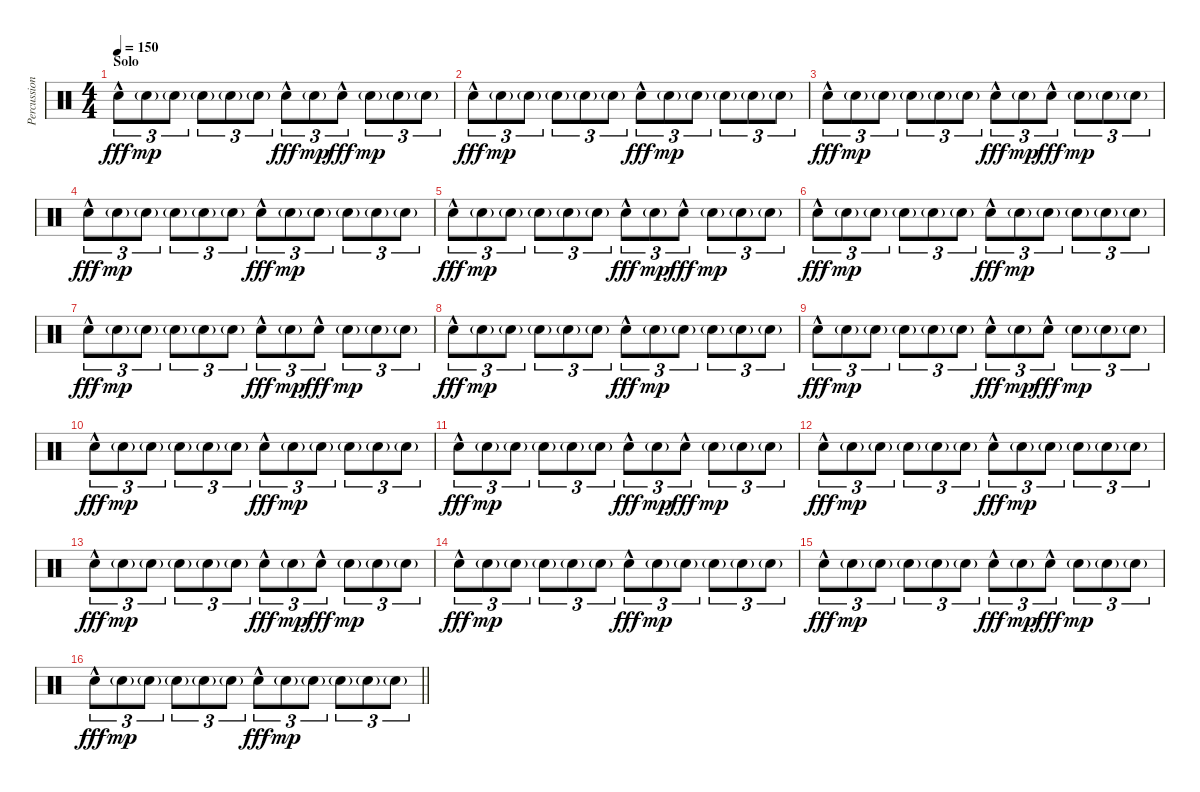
\track ("Percussion" "Percussion") {instrument percussion}
\staff {score}
\articulation defaults
\ts (4 4)
\section ("" "Solo")
\tempo 150
\clef neutral
\ks c "Electric Snare (hit)"{hac}.8{tu (3 2) dy fff} "Electric Snare (hit)"{g}.8{tu (3 2) dy mp} "Electric Snare (hit)"{g}.8{tu (3 2)} "Electric Snare (hit)"{g}.8{tu (3 2)} "Electric Snare (hit)"{g}.8{tu (3 2)} "Electric Snare (hit)"{g}.8{tu (3 2)} "Electric Snare (hit)"{hac}.8{tu (3 2) dy fff} "Electric Snare (hit)"{g}.8{tu (3 2) dy mp} "Electric Snare (hit)"{hac}.8{tu (3 2) dy fff} "Electric Snare (hit)"{g}.8{tu (3 2) dy mp} "Electric Snare (hit)"{g}.8{tu (3 2)} "Electric Snare (hit)"{g}.8{tu (3 2)}
|
"Electric Snare (hit)"{hac}.8{tu (3 2) dy fff} "Electric Snare (hit)"{g}.8{tu (3 2) dy mp} "Electric Snare (hit)"{g}.8{tu (3 2)} "Electric Snare (hit)"{g}.8{tu (3 2)} "Electric Snare (hit)"{g}.8{tu (3 2)} "Electric Snare (hit)"{g}.8{tu (3 2)} "Electric Snare (hit)"{hac}.8{tu (3 2) dy fff} "Electric Snare (hit)"{g}.8{tu (3 2) dy mp} "Electric Snare (hit)"{g}.8{tu (3 2)} "Electric Snare (hit)"{g}.8{tu (3 2)} "Electric Snare (hit)"{g}.8{tu (3 2)} "Electric Snare (hit)"{g}.8{tu (3 2)} |
"Electric Snare (hit)"{hac}.8{tu (3 2) dy fff} "Electric Snare (hit)"{g}.8{tu (3 2) dy mp} "Electric Snare (hit)"{g}.8{tu (3 2)} "Electric Snare (hit)"{g}.8{tu (3 2)} "Electric Snare (hit)"{g}.8{tu (3 2)} "Electric Snare (hit)"{g}.8{tu (3 2)} "Electric Snare (hit)"{hac}.8{tu (3 2) dy fff} "Electric Snare (hit)"{g}.8{tu (3 2) dy mp} "Electric Snare (hit)"{hac}.8{tu (3 2) dy fff} "Electric Snare (hit)"{g}.8{tu (3 2) dy mp} "Electric Snare (hit)"{g}.8{tu (3 2)} "Electric Snare (hit)"{g}.8{tu (3 2)} |
"Electric Snare (hit)"{hac}.8{tu (3 2) dy fff} "Electric Snare (hit)"{g}.8{tu (3 2) dy mp} "Electric Snare (hit)"{g}.8{tu (3 2)} "Electric Snare (hit)"{g}.8{tu (3 2)} "Electric Snare (hit)"{g}.8{tu (3 2)} "Electric Snare (hit)"{g}.8{tu (3 2)} "Electric Snare (hit)"{hac}.8{tu (3 2) dy fff} "Electric Snare (hit)"{g}.8{tu (3 2) dy mp} "Electric Snare (hit)"{g}.8{tu (3 2)} "Electric Snare (hit)"{g}.8{tu (3 2)} "Electric Snare (hit)"{g}.8{tu (3 2)} "Electric Snare (hit)"{g}.8{tu (3 2)} |
"Electric Snare (hit)"{hac}.8{tu (3 2) dy fff} "Electric Snare (hit)"{g}.8{tu (3 2) dy mp} "Electric Snare (hit)"{g}.8{tu (3 2)} "Electric Snare (hit)"{g}.8{tu (3 2)} "Electric Snare (hit)"{g}.8{tu (3 2)} "Electric Snare (hit)"{g}.8{tu (3 2)} "Electric Snare (hit)"{hac}.8{tu (3 2) dy fff} "Electric Snare (hit)"{g}.8{tu (3 2) dy mp} "Electric Snare (hit)"{hac}.8{tu (3 2) dy fff} "Electric Snare (hit)"{g}.8{tu (3 2) dy mp} "Electric Snare (hit)"{g}.8{tu (3 2)} "Electric Snare (hit)"{g}.8{tu (3 2)} |
"Electric Snare (hit)"{hac}.8{tu (3 2) dy fff} "Electric Snare (hit)"{g}.8{tu (3 2) dy mp} "Electric Snare (hit)"{g}.8{tu (3 2)} "Electric Snare (hit)"{g}.8{tu (3 2)} "Electric Snare (hit)"{g}.8{tu (3 2)} "Electric Snare (hit)"{g}.8{tu (3 2)} "Electric Snare (hit)"{hac}.8{tu (3 2) dy fff} "Electric Snare (hit)"{g}.8{tu (3 2) dy mp} "Electric Snare (hit)"{g}.8{tu (3 2)} "Electric Snare (hit)"{g}.8{tu (3 2)} "Electric Snare (hit)"{g}.8{tu (3 2)} "Electric Snare (hit)"{g}.8{tu (3 2)} |
"Electric Snare (hit)"{hac}.8{tu (3 2) dy fff} "Electric Snare (hit)"{g}.8{tu (3 2) dy mp} "Electric Snare (hit)"{g}.8{tu (3 2)} "Electric Snare (hit)"{g}.8{tu (3 2)} "Electric Snare (hit)"{g}.8{tu (3 2)} "Electric Snare (hit)"{g}.8{tu (3 2)} "Electric Snare (hit)"{hac}.8{tu (3 2) dy fff} "Electric Snare (hit)"{g}.8{tu (3 2) dy mp} "Electric Snare (hit)"{hac}.8{tu (3 2) dy fff} "Electric Snare (hit)"{g}.8{tu (3 2) dy mp} "Electric Snare (hit)"{g}.8{tu (3 2)} "Electric Snare (hit)"{g}.8{tu (3 2)} |
"Electric Snare (hit)"{hac}.8{tu (3 2) dy fff} "Electric Snare (hit)"{g}.8{tu (3 2) dy mp} "Electric Snare (hit)"{g}.8{tu (3 2)} "Electric Snare (hit)"{g}.8{tu (3 2)} "Electric Snare (hit)"{g}.8{tu (3 2)} "Electric Snare (hit)"{g}.8{tu (3 2)} "Electric Snare (hit)"{hac}.8{tu (3 2) dy fff} "Electric Snare (hit)"{g}.8{tu (3 2) dy mp} "Electric Snare (hit)"{g}.8{tu (3 2)} "Electric Snare (hit)"{g}.8{tu (3 2)} "Electric Snare (hit)"{g}.8{tu (3 2)} "Electric Snare (hit)"{g}.8{tu (3 2)} |
"Electric Snare (hit)"{hac}.8{tu (3 2) dy fff} "Electric Snare (hit)"{g}.8{tu (3 2) dy mp} "Electric Snare (hit)"{g}.8{tu (3 2)} "Electric Snare (hit)"{g}.8{tu (3 2)} "Electric Snare (hit)"{g}.8{tu (3 2)} "Electric Snare (hit)"{g}.8{tu (3 2)} "Electric Snare (hit)"{hac}.8{tu (3 2) dy fff} "Electric Snare (hit)"{g}.8{tu (3 2) dy mp} "Electric Snare (hit)"{hac}.8{tu (3 2) dy fff} "Electric Snare (hit)"{g}.8{tu (3 2) dy mp} "Electric Snare (hit)"{g}.8{tu (3 2)} "Electric Snare (hit)"{g}.8{tu (3 2)} |
"Electric Snare (hit)"{hac}.8{tu (3 2) dy fff} "Electric Snare (hit)"{g}.8{tu (3 2) dy mp} "Electric Snare (hit)"{g}.8{tu (3 2)} "Electric Snare (hit)"{g}.8{tu (3 2)} "Electric Snare (hit)"{g}.8{tu (3 2)} "Electric Snare (hit)"{g}.8{tu (3 2)} "Electric Snare (hit)"{hac}.8{tu (3 2) dy fff} "Electric Snare (hit)"{g}.8{tu (3 2) dy mp} "Electric Snare (hit)"{g}.8{tu (3 2)} "Electric Snare (hit)"{g}.8{tu (3 2)} "Electric Snare (hit)"{g}.8{tu (3 2)} "Electric Snare (hit)"{g}.8{tu (3 2)} |
"Electric Snare (hit)"{hac}.8{tu (3 2) dy fff} "Electric Snare (hit)"{g}.8{tu (3 2) dy mp} "Electric Snare (hit)"{g}.8{tu (3 2)} "Electric Snare (hit)"{g}.8{tu (3 2)} "Electric Snare (hit)"{g}.8{tu (3 2)} "Electric Snare (hit)"{g}.8{tu (3 2)} "Electric Snare (hit)"{hac}.8{tu (3 2) dy fff} "Electric Snare (hit)"{g}.8{tu (3 2) dy mp} "Electric Snare (hit)"{hac}.8{tu (3 2) dy fff} "Electric Snare (hit)"{g}.8{tu (3 2) dy mp} "Electric Snare (hit)"{g}.8{tu (3 2)} "Electric Snare (hit)"{g}.8{tu (3 2)} |
"Electric Snare (hit)"{hac}.8{tu (3 2) dy fff} "Electric Snare (hit)"{g}.8{tu (3 2) dy mp} "Electric Snare (hit)"{g}.8{tu (3 2)} "Electric Snare (hit)"{g}.8{tu (3 2)} "Electric Snare (hit)"{g}.8{tu (3 2)} "Electric Snare (hit)"{g}.8{tu (3 2)} "Electric Snare (hit)"{hac}.8{tu (3 2) dy fff} "Electric Snare (hit)"{g}.8{tu (3 2) dy mp} "Electric Snare (hit)"{g}.8{tu (3 2)} "Electric Snare (hit)"{g}.8{tu (3 2)} "Electric Snare (hit)"{g}.8{tu (3 2)} "Electric Snare (hit)"{g}.8{tu (3 2)} |
"Electric Snare (hit)"{hac}.8{tu (3 2) dy fff} "Electric Snare (hit)"{g}.8{tu (3 2) dy mp} "Electric Snare (hit)"{g}.8{tu (3 2)} "Electric Snare (hit)"{g}.8{tu (3 2)} "Electric Snare (hit)"{g}.8{tu (3 2)} "Electric Snare (hit)"{g}.8{tu (3 2)} "Electric Snare (hit)"{hac}.8{tu (3 2) dy fff} "Electric Snare (hit)"{g}.8{tu (3 2) dy mp} "Electric Snare (hit)"{hac}.8{tu (3 2) dy fff} "Electric Snare (hit)"{g}.8{tu (3 2) dy mp} "Electric Snare (hit)"{g}.8{tu (3 2)} "Electric Snare (hit)"{g}.8{tu (3 2)} |
"Electric Snare (hit)"{hac}.8{tu (3 2) dy fff} "Electric Snare (hit)"{g}.8{tu (3 2) dy mp} "Electric Snare (hit)"{g}.8{tu (3 2)} "Electric Snare (hit)"{g}.8{tu (3 2)} "Electric Snare (hit)"{g}.8{tu (3 2)} "Electric Snare (hit)"{g}.8{tu (3 2)} "Electric Snare (hit)"{hac}.8{tu (3 2) dy fff} "Electric Snare (hit)"{g}.8{tu (3 2) dy mp} "Electric Snare (hit)"{g}.8{tu (3 2)} "Electric Snare (hit)"{g}.8{tu (3 2)} "Electric Snare (hit)"{g}.8{tu (3 2)} "Electric Snare (hit)"{g}.8{tu (3 2)} |
"Electric Snare (hit)"{hac}.8{tu (3 2) dy fff} "Electric Snare (hit)"{g}.8{tu (3 2) dy mp} "Electric Snare (hit)"{g}.8{tu (3 2)} "Electric Snare (hit)"{g}.8{tu (3 2)} "Electric Snare (hit)"{g}.8{tu (3 2)} "Electric Snare (hit)"{g}.8{tu (3 2)} "Electric Snare (hit)"{hac}.8{tu (3 2) dy fff} "Electric Snare (hit)"{g}.8{tu (3 2) dy mp} "Electric Snare (hit)"{hac}.8{tu (3 2) dy fff} "Electric Snare (hit)"{g}.8{tu (3 2) dy mp} "Electric Snare (hit)"{g}.8{tu (3 2)} "Electric Snare (hit)"{g}.8{tu (3 2)} |
\barLineRight lightlight "Electric Snare (hit)"{hac}.8{tu (3 2) dy fff} "Electric Snare (hit)"{g}.8{tu (3 2) dy mp} "Electric Snare (hit)"{g}.8{tu (3 2)} "Electric Snare (hit)"{g}.8{tu (3 2)} "Electric Snare (hit)"{g}.8{tu (3 2)} "Electric Snare (hit)"{g}.8{tu (3 2)} "Electric Snare (hit)"{hac}.8{tu (3 2) dy fff} "Electric Snare (hit)"{g}.8{tu (3 2) dy mp} "Electric Snare (hit)"{g}.8{tu (3 2)} "Electric Snare (hit)"{g}.8{tu (3 2)} "Electric Snare (hit)"{g}.8{tu (3 2)} "Electric Snare (hit)"{g}.8{tu (3 2)}
